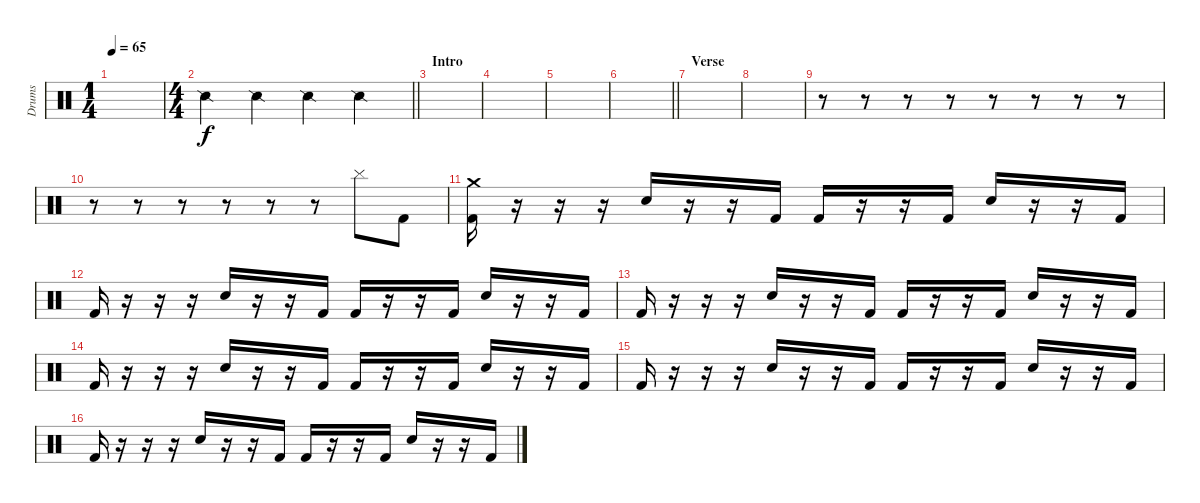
\track ("Drums" "Drums") {instrument percussion}
\staff {score}
\articulation defaults
\ts (1 4)
\tempo 65
\clef neutral
\ks c
|
\ts (4 4)
\barLineRight lightlight "Snare (side stick) 2".4 "Snare (side stick) 2".4 "Snare (side stick) 2".4 "Snare (side stick) 2".4
|
\section ("" "Intro")
|
|
|
\barLineRight lightlight
|
\section ("" "Verse")
|
|
r.8 r.8 r.8 r.8 r.8 r.8 r.8 r.8 |
r.8 r.8 r.8 r.8 r.8 r.8 "Cymbal (hit)".8{dy f} "Kick (hit) 2".8 |
("Kick (hit) 2" "Crash medium (hit)").16 r.16 r.16 r.16 "Snare (hit) 2".16 r.16 r.16 "Kick (hit) 2".16 "Kick (hit) 2".16 r.16 r.16 "Kick (hit) 2".16 "Snare (hit) 2".16 r.16 r.16 "Kick (hit) 2".16 |
"Kick (hit) 2".16 r.16 r.16 r.16 "Snare (hit) 2".16 r.16 r.16 "Kick (hit) 2".16 "Kick (hit) 2".16 r.16 r.16 "Kick (hit) 2".16 "Snare (hit) 2".16 r.16 r.16 "Kick (hit) 2".16 |
"Kick (hit) 2".16 r.16 r.16 r.16 "Snare (hit) 2".16 r.16 r.16 "Kick (hit) 2".16 "Kick (hit) 2".16 r.16 r.16 "Kick (hit) 2".16 "Snare (hit) 2".16 r.16 r.16 "Kick (hit) 2".16 |
"Kick (hit) 2".16 r.16 r.16 r.16 "Snare (hit) 2".16 r.16 r.16 "Kick (hit) 2".16 "Kick (hit) 2".16 r.16 r.16 "Kick (hit) 2".16 "Snare (hit) 2".16 r.16 r.16 "Kick (hit) 2".16 |
"Kick (hit) 2".16 r.16 r.16 r.16 "Snare (hit) 2".16 r.16 r.16 "Kick (hit) 2".16 "Kick (hit) 2".16 r.16 r.16 "Kick (hit) 2".16 "Snare (hit) 2".16 r.16 r.16 "Kick (hit) 2".16 |
"Kick (hit) 2".16 r.16 r.16 r.16 "Snare (hit) 2".16 r.16 r.16 "Kick (hit) 2".16 "Kick (hit) 2".16 r.16 r.16 "Kick (hit) 2".16 "Snare (hit) 2".16 r.16 r.16 "Kick (hit) 2".16
